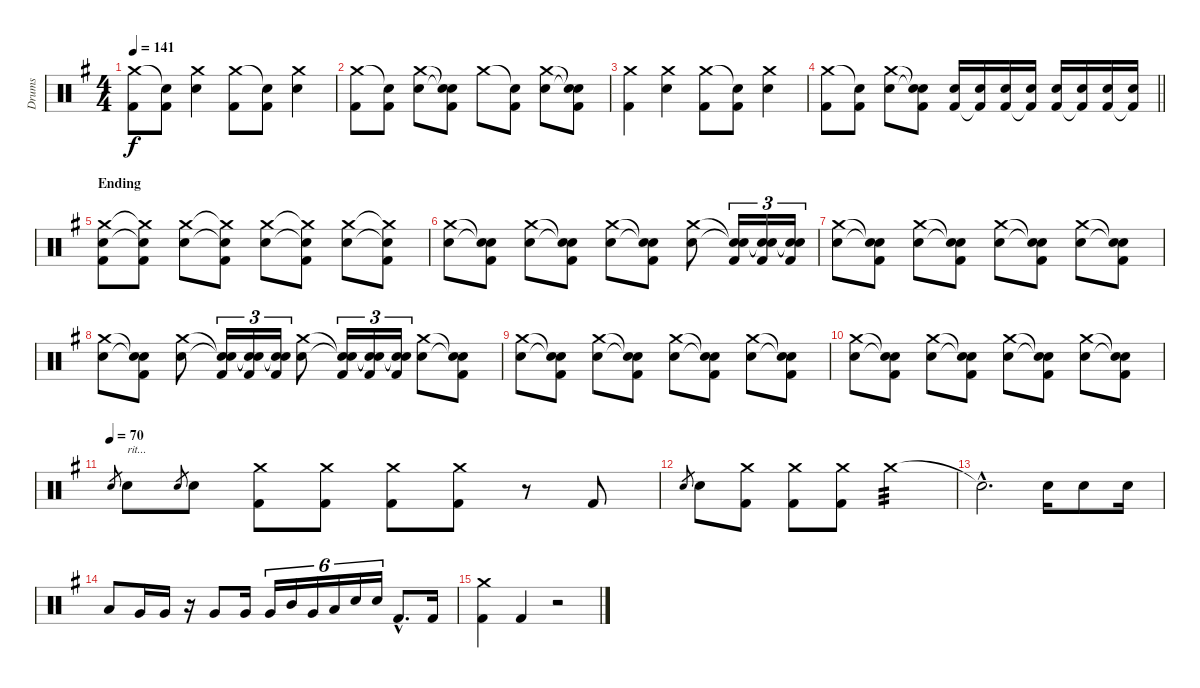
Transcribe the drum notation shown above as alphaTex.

\track ("Drums" "Drums") {instrument percussion}
\staff {score}
\articulation defaults
\ts (4 4)
\tempo 141
\clef neutral
\ks g
("Crash medium (hit)" "Kick (hit) 2").8{dy f} ("Snare (hit)"{t} "Kick (hit) 2").8 ("Crash medium (hit)" "Electric Snare (hit)").4 ("Crash medium (hit)" "Kick (hit) 2").8 ("Snare (hit)"{t} "Kick (hit) 2").8 ("Crash medium (hit)" "Electric Snare (hit)").4 |
("Crash medium (hit)" "Kick (hit) 2").8 ("Snare (hit)"{t} "Kick (hit) 2").8 ("Crash medium (hit)" "Electric Snare (hit)").8 ("Snare (hit)"{t} "Snare (hit)"{t} "Kick (hit) 2").8 "Crash medium (hit)".8 ("Snare (hit)"{t} "Kick (hit) 2").8 ("Crash medium (hit)" "Electric Snare (hit)").8 ("Snare (hit)"{t} "Snare (hit)"{t} "Kick (hit) 2").8 |
("Crash medium (hit)" "Kick (hit) 2").4 ("Crash medium (hit)" "Electric Snare (hit)").4 ("Crash medium (hit)" "Kick (hit) 2").8 ("Snare (hit)"{t} "Kick (hit) 2").8 ("Crash medium (hit)" "Electric Snare (hit)").4 |
\barLineRight lightlight
("Crash medium (hit)" "Kick (hit) 2").8 ("Snare (hit)"{t} "Kick (hit) 2").8 ("Crash medium (hit)" "Electric Snare (hit)").8 ("Snare (hit)"{t} "Snare (hit)"{t} "Kick (hit) 2").8 ("Electric Snare (hit)" "Kick (hit) 2").16 ("Electric Snare (hit)" "Kick (hit) 2"{t}).16 ("Electric Snare (hit)" "Kick (hit) 2").16 ("Electric Snare (hit)" "Kick (hit) 2"{t}).16 ("Electric Snare (hit)" "Kick (hit) 2").16 ("Electric Snare (hit)" "Kick (hit) 2"{t}).16 ("Electric Snare (hit)" "Kick (hit) 2").16 ("Electric Snare (hit)" "Kick (hit) 2"{t}).16 |
\section ("" "Ending")
("Crash medium (hit)" "Electric Snare (hit)" "Kick (hit) 2").8 ("Crash medium (hit)"{t} "Electric Snare (hit)"{t} "Kick (hit) 2").8 ("Crash medium (hit)" "Electric Snare (hit)").8 ("Crash medium (hit)"{t} "Electric Snare (hit)"{t} "Kick (hit) 2").8 ("Crash medium (hit)" "Electric Snare (hit)").8 ("Crash medium (hit)"{t} "Electric Snare (hit)"{t} "Kick (hit) 2").8 ("Crash medium (hit)" "Electric Snare (hit)").8 ("Crash medium (hit)"{t} "Electric Snare (hit)"{t} "Kick (hit) 2").8 |
("Crash medium (hit)" "Electric Snare (hit)").8 ("Snare (hit)"{t} "Snare (hit)"{t} "Kick (hit) 2").8 ("Crash medium (hit)" "Electric Snare (hit)").8 ("Snare (hit)"{t} "Snare (hit)"{t} "Kick (hit) 2").8 ("Crash medium (hit)" "Electric Snare (hit)").8 ("Snare (hit)"{t} "Snare (hit)"{t} "Kick (hit) 2").8 ("Crash medium (hit)" "Electric Snare (hit)").8 ("Snare (hit)"{t} "Snare (hit)"{t} "Kick (hit) 2").16{tu (3 2)} ("Snare (hit)"{t} "Snare (hit)"{t} "Kick (hit) 2").16{tu (3 2)} ("Snare (hit)"{t} "Snare (hit)"{t} "Kick (hit) 2").16{tu (3 2)} |
("Crash medium (hit)" "Electric Snare (hit)").8 ("Snare (hit)"{t} "Snare (hit)"{t} "Kick (hit) 2").8 ("Crash medium (hit)" "Electric Snare (hit)").8 ("Snare (hit)"{t} "Snare (hit)"{t} "Kick (hit) 2").8 ("Crash medium (hit)" "Electric Snare (hit)").8 ("Snare (hit)"{t} "Snare (hit)"{t} "Kick (hit) 2").8 ("Crash medium (hit)" "Electric Snare (hit)").8 ("Snare (hit)"{t} "Snare (hit)"{t} "Kick (hit) 2").8 |
("Crash medium (hit)" "Electric Snare (hit)").8 ("Snare (hit)"{t} "Snare (hit)"{t} "Kick (hit) 2").8 ("Crash medium (hit)" "Electric Snare (hit)").8 ("Snare (hit)"{t} "Snare (hit)"{t} "Kick (hit) 2").16{tu (3 2)} ("Snare (hit)"{t} "Snare (hit)"{t} "Kick (hit) 2").16{tu (3 2)} ("Snare (hit)"{t} "Snare (hit)"{t} "Kick (hit) 2").16{tu (3 2)} ("Crash medium (hit)" "Electric Snare (hit)").8 ("Snare (hit)"{t} "Snare (hit)"{t} "Kick (hit) 2").16{tu (3 2)} ("Snare (hit)"{t} "Snare (hit)"{t} "Kick (hit) 2").16{tu (3 2)} ("Snare (hit)"{t} "Snare (hit)"{t} "Kick (hit) 2").16{tu (3 2)} ("Crash medium (hit)" "Electric Snare (hit)").8 ("Snare (hit)"{t} "Snare (hit)"{t} "Kick (hit) 2").8 |
("Crash medium (hit)" "Electric Snare (hit)").8 ("Snare (hit)"{t} "Snare (hit)"{t} "Kick (hit) 2").8 ("Crash medium (hit)" "Electric Snare (hit)").8 ("Snare (hit)"{t} "Snare (hit)"{t} "Kick (hit) 2").8 ("Crash medium (hit)" "Electric Snare (hit)").8 ("Snare (hit)"{t} "Snare (hit)"{t} "Kick (hit) 2").8 ("Crash medium (hit)" "Electric Snare (hit)").8 ("Snare (hit)"{t} "Snare (hit)"{t} "Kick (hit) 2").8 |
("Crash medium (hit)" "Electric Snare (hit)").8 ("Snare (hit)"{t} "Snare (hit)"{t} "Kick (hit) 2").8 ("Crash medium (hit)" "Electric Snare (hit)").8 ("Snare (hit)"{t} "Snare (hit)"{t} "Kick (hit) 2").8 ("Crash medium (hit)" "Electric Snare (hit)").8 ("Snare (hit)"{t} "Snare (hit)"{t} "Kick (hit) 2").8 ("Crash medium (hit)" "Electric Snare (hit)").8 ("Snare (hit)"{t} "Snare (hit)"{t} "Kick (hit) 2").8 |
\tempo (70)
"Electric Snare (hit)".8{gr} "Electric Snare (hit)".8{txt "rit..."} "Electric Snare (hit)".8{gr} "Electric Snare (hit)".8 ("Crash medium (hit)" "Kick (hit) 2").8 ("Crash medium (hit)" "Kick (hit) 2").8 ("Crash medium (hit)" "Kick (hit) 2").8 ("Crash medium (hit)" "Kick (hit) 2").8 r.8 "Kick (hit) 2".8 |
"Electric Snare (hit)".8{gr} "Electric Snare (hit)".8 ("Crash medium (hit)" "Kick (hit) 2").8 ("Crash medium (hit)" "Kick (hit) 2").8 ("Crash medium (hit)" "Kick (hit) 2").8 "Crash medium (hit)".2{tp 3} |
"Snare (hit)"{hac t}.2{d} "Electric Snare (hit)".16 "Electric Snare (hit)".8 "Electric Snare (hit)".16 |
"Low Tom (hit)".8 "Very Low Tom (hit)".16 "Very Low Tom (hit)".16 r.16 "Very Low Tom (hit)".8 "Very Low Tom (hit)".16 "Very Low Tom (hit)".16{tu (6 4)} "Mid Tom (hit)".16{tu (6 4)} "Very Low Tom (hit)".16{tu (6 4)} "Low Tom (hit)".16{tu (6 4)} "Electric Snare (hit)".16{tu (6 4)} "Electric Snare (hit)".16{tu (6 4)} "Kick (hit) 2"{hac}.8{d} "Kick (hit) 2".16 |
("Crash medium (hit)" "Kick (hit) 2").4 "Kick (hit) 2".4 r.2
